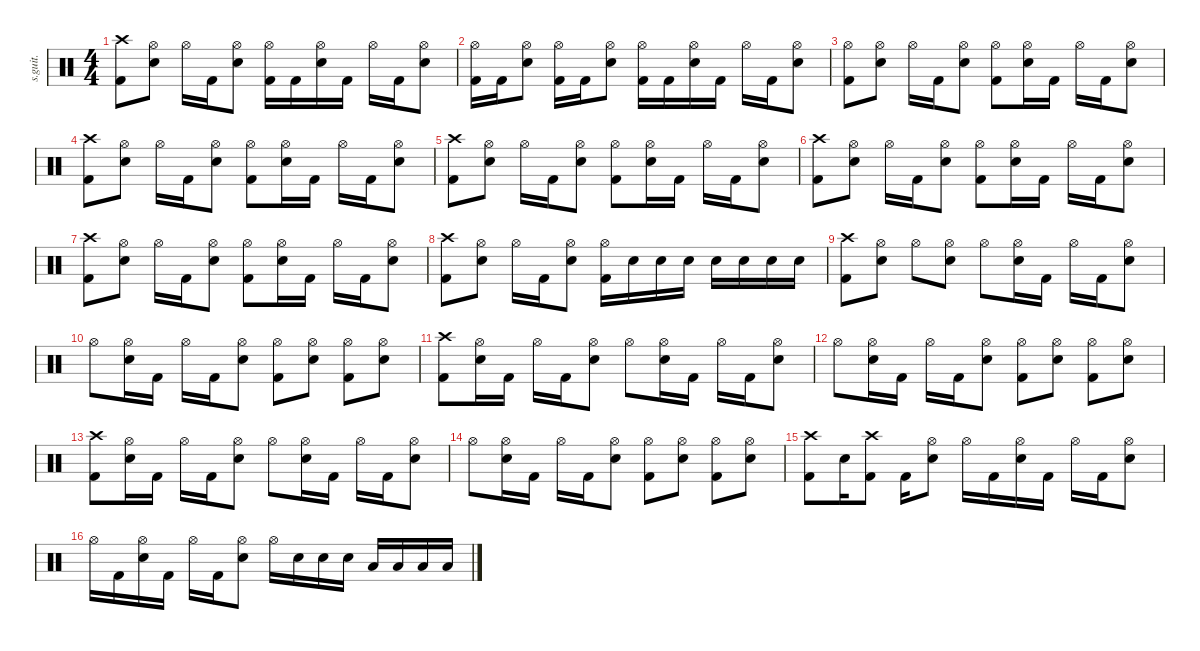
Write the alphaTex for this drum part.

\defaultSystemsLayout 4
\hideDynamics
\bracketExtendMode nobrackets
\track ("" "s.guit.") {instrument percussion}
\staff {score}
\articulation defaults
\ts (4 4)
\tempo (150 hide)
\clef neutral
\ks c
("Crash high (hit)" "Kick (hit) 2").8{dy f} ("Hi-Hat (open)" "Snare (hit) 2").8 "Hi-Hat (open)".16 "Kick (hit) 2".16 ("Hi-Hat (open)" "Snare (hit) 2").8 ("Hi-Hat (open)" "Kick (hit) 2").16 "Kick (hit) 2".16 ("Hi-Hat (open)" "Snare (hit) 2").16 "Kick (hit) 2".16 "Hi-Hat (open)".16 "Kick (hit) 2".16 ("Hi-Hat (open)" "Snare (hit) 2").8 |
("Hi-Hat (open)" "Kick (hit) 2").16 "Kick (hit) 2".16 ("Hi-Hat (open)" "Snare (hit) 2").8 ("Hi-Hat (open)" "Kick (hit) 2").16 "Kick (hit) 2".16 ("Hi-Hat (open)" "Snare (hit) 2").8 ("Hi-Hat (open)" "Kick (hit) 2").16 "Kick (hit) 2".16 ("Hi-Hat (open)" "Snare (hit) 2").16 "Kick (hit) 2".16 "Hi-Hat (open)".16 "Kick (hit) 2".16 ("Hi-Hat (open)" "Snare (hit) 2").8 |
("Hi-Hat (open)" "Kick (hit) 2").8 ("Hi-Hat (open)" "Snare (hit) 2").8 "Hi-Hat (open)".16 "Kick (hit) 2".16 ("Hi-Hat (open)" "Snare (hit) 2").8 ("Hi-Hat (open)" "Kick (hit) 2").8 ("Hi-Hat (open)" "Snare (hit) 2").16 "Kick (hit) 2".16 "Hi-Hat (open)".16 "Kick (hit) 2".16 ("Hi-Hat (open)" "Snare (hit) 2").8 |
("Crash high (hit)" "Kick (hit) 2").8 ("Hi-Hat (open)" "Snare (hit) 2").8 "Hi-Hat (open)".16 "Kick (hit) 2".16 ("Hi-Hat (open)" "Snare (hit) 2").8 ("Hi-Hat (open)" "Kick (hit) 2").8 ("Hi-Hat (open)" "Snare (hit) 2").16 "Kick (hit) 2".16 "Hi-Hat (open)".16 "Kick (hit) 2".16 ("Hi-Hat (open)" "Snare (hit) 2").8 |
("Crash high (hit)" "Kick (hit) 2").8 ("Hi-Hat (open)" "Snare (hit) 2").8 "Hi-Hat (open)".16 "Kick (hit) 2".16 ("Hi-Hat (open)" "Snare (hit) 2").8 ("Hi-Hat (open)" "Kick (hit) 2").8 ("Hi-Hat (open)" "Snare (hit) 2").16 "Kick (hit) 2".16 "Hi-Hat (open)".16 "Kick (hit) 2".16 ("Hi-Hat (open)" "Snare (hit) 2").8 |
("Crash high (hit)" "Kick (hit) 2").8 ("Hi-Hat (open)" "Snare (hit) 2").8 "Hi-Hat (open)".16 "Kick (hit) 2".16 ("Hi-Hat (open)" "Snare (hit) 2").8 ("Hi-Hat (open)" "Kick (hit) 2").8 ("Hi-Hat (open)" "Snare (hit) 2").16 "Kick (hit) 2".16 "Hi-Hat (open)".16 "Kick (hit) 2".16 ("Hi-Hat (open)" "Snare (hit) 2").8 |
("Crash high (hit)" "Kick (hit) 2").8 ("Hi-Hat (open)" "Snare (hit) 2").8 "Hi-Hat (open)".16 "Kick (hit) 2".16 ("Hi-Hat (open)" "Snare (hit) 2").8 ("Hi-Hat (open)" "Kick (hit) 2").8 ("Hi-Hat (open)" "Snare (hit) 2").16 "Kick (hit) 2".16 "Hi-Hat (open)".16 "Kick (hit) 2".16 ("Hi-Hat (open)" "Snare (hit) 2").8 |
("Crash high (hit)" "Kick (hit) 2").8 ("Hi-Hat (open)" "Snare (hit) 2").8 "Hi-Hat (open)".16 "Kick (hit) 2".16 ("Hi-Hat (open)" "Snare (hit) 2").8 ("Hi-Hat (open)" "Kick (hit) 2").16 "Snare (hit) 2".16 "Snare (hit) 2".16 "Snare (hit) 2".16 "Snare (hit) 2".16 "Snare (hit) 2".16 "Snare (hit) 2".16 "Snare (hit) 2".16 |
("Crash high (hit)" "Kick (hit) 2").8 ("Hi-Hat (open)" "Snare (hit) 2").8 "Hi-Hat (open)".8 ("Hi-Hat (open)" "Snare (hit) 2").8 "Hi-Hat (open)".8 ("Hi-Hat (open)" "Snare (hit) 2").16 "Kick (hit) 2".16 "Hi-Hat (open)".16 "Kick (hit) 2".16 ("Hi-Hat (open)" "Snare (hit) 2").8 |
"Hi-Hat (open)".8 ("Hi-Hat (open)" "Snare (hit) 2").16 "Kick (hit) 2".16 "Hi-Hat (open)".16 "Kick (hit) 2".16 ("Hi-Hat (open)" "Snare (hit) 2").8 ("Hi-Hat (open)" "Kick (hit) 2").8 ("Hi-Hat (open)" "Snare (hit) 2").8 ("Hi-Hat (open)" "Kick (hit) 2").8 ("Hi-Hat (open)" "Snare (hit) 2").8 |
("Crash high (hit)" "Kick (hit) 2").8 ("Hi-Hat (open)" "Snare (hit) 2").16 "Kick (hit) 2".16 "Hi-Hat (open)".16 "Kick (hit) 2".16 ("Hi-Hat (open)" "Snare (hit) 2").8 "Hi-Hat (open)".8 ("Hi-Hat (open)" "Snare (hit) 2").16 "Kick (hit) 2".16 "Hi-Hat (open)".16 "Kick (hit) 2".16 ("Hi-Hat (open)" "Snare (hit) 2").8 |
"Hi-Hat (open)".8 ("Hi-Hat (open)" "Snare (hit) 2").16 "Kick (hit) 2".16 "Hi-Hat (open)".16 "Kick (hit) 2".16 ("Hi-Hat (open)" "Snare (hit) 2").8 ("Hi-Hat (open)" "Kick (hit) 2").8 ("Hi-Hat (open)" "Snare (hit) 2").8 ("Hi-Hat (open)" "Kick (hit) 2").8 ("Hi-Hat (open)" "Snare (hit) 2").8 |
("Crash high (hit)" "Kick (hit) 2").8 ("Hi-Hat (open)" "Snare (hit) 2").16 "Kick (hit) 2".16 "Hi-Hat (open)".16 "Kick (hit) 2".16 ("Hi-Hat (open)" "Snare (hit) 2").8 "Hi-Hat (open)".8 ("Hi-Hat (open)" "Snare (hit) 2").16 "Kick (hit) 2".16 "Hi-Hat (open)".16 "Kick (hit) 2".16 ("Hi-Hat (open)" "Snare (hit) 2").8 |
"Hi-Hat (open)".8 ("Hi-Hat (open)" "Snare (hit) 2").16 "Kick (hit) 2".16 "Hi-Hat (open)".16 "Kick (hit) 2".16 ("Hi-Hat (open)" "Snare (hit) 2").8 ("Hi-Hat (open)" "Kick (hit) 2").8 ("Hi-Hat (open)" "Snare (hit) 2").8 ("Hi-Hat (open)" "Kick (hit) 2").8 ("Hi-Hat (open)" "Snare (hit) 2").8 |
("Crash high (hit)" "Kick (hit) 2").8 "Snare (hit) 2".16 ("Crash high (hit)" "Kick (hit) 2").8 "Kick (hit) 2".16 ("Hi-Hat (open)" "Snare (hit) 2").8 "Hi-Hat (open)".16 "Kick (hit) 2".16 ("Hi-Hat (open)" "Snare (hit) 2").16 "Kick (hit) 2".16 "Hi-Hat (open)".16 "Kick (hit) 2".16 ("Hi-Hat (open)" "Snare (hit) 2").8 |
"Hi-Hat (open)".16 "Kick (hit) 2".16 ("Hi-Hat (open)" "Snare (hit) 2").16 "Kick (hit) 2".16 "Hi-Hat (open)".16 "Kick (hit) 2".16 ("Hi-Hat (open)" "Snare (hit) 2").8 "Hi-Hat (open)".16 "Snare (hit) 2".16 "Snare (hit) 2".16 "Snare (hit) 2".16 "Low Tom (hit)".16 "Low Tom (hit)".16 "Low Floor Tom (hit)".16 "Low Floor Tom (hit)".16
